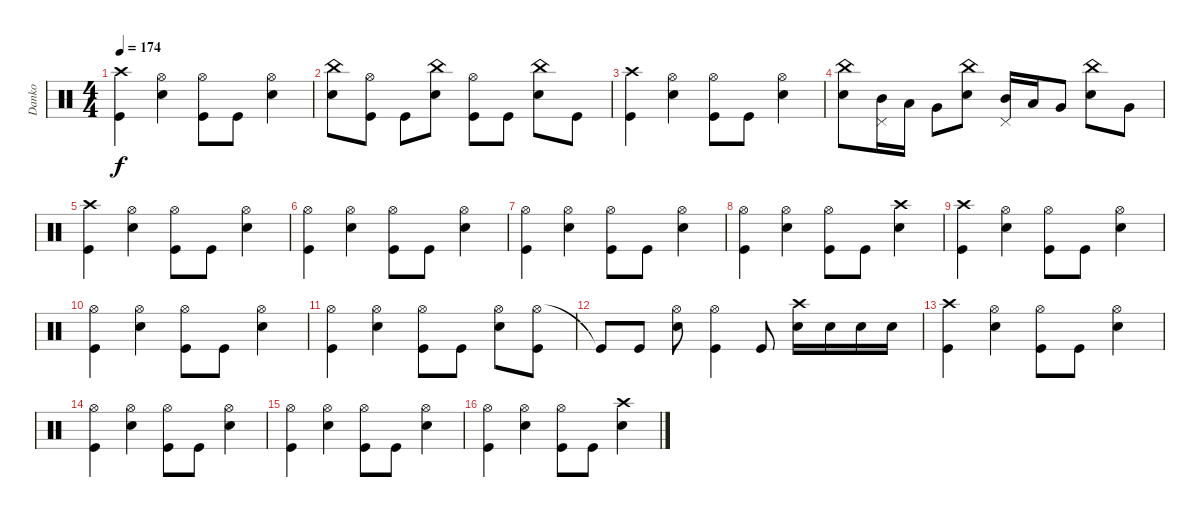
\track ("Danko" "Danko") {instrument percussion}
\staff {score}
\articulation defaults
\ts (4 4)
\tempo 174
\clef neutral
\ks c
("Crash high (hit)" "Kick (hit)").4{dy f} ("Hi-Hat (open)" "Snare (hit) 2").4 ("Hi-Hat (open)" "Kick (hit)").8 "Kick (hit)".8 ("Hi-Hat (open)" "Snare (hit) 2").4 |
("Snare (hit) 2" "China (hit)").8 ("Kick (hit)" "Hi-Hat (open)").8 "Kick (hit)".8 ("Snare (hit) 2" "China (hit)").8 ("Kick (hit)" "Hi-Hat (open)").8 "Kick (hit)".8 ("Snare (hit) 2" "China (hit)").8 "Kick (hit)".8 |
("Crash high (hit)" "Kick (hit)").4 ("Hi-Hat (open)" "Snare (hit) 2").4 ("Hi-Hat (open)" "Kick (hit)").8 "Kick (hit)".8 ("Hi-Hat (open)" "Snare (hit) 2").4 |
("Snare (hit) 2" "China (hit)").8 ("Pedal Hi-Hat (hit)" "Mid Tom (hit)").16 "Low Tom (hit)".16 "Very Low Tom (hit)".8 ("Snare (hit) 2" "China (hit)").8 ("Pedal Hi-Hat (hit)" "Mid Tom (hit)").16 "Low Tom (hit)".16 "Very Low Tom (hit)".8 ("Snare (hit) 2" "China (hit)").8 "Very Low Tom (hit)".8 |
("Crash high (hit)" "Kick (hit)").4 ("Hi-Hat (open)" "Snare (hit) 2").4 ("Hi-Hat (open)" "Kick (hit)").8 "Kick (hit)".8 ("Hi-Hat (open)" "Snare (hit) 2").4 |
("Hi-Hat (open)" "Kick (hit)").4 ("Hi-Hat (open)" "Snare (hit) 2").4 ("Hi-Hat (open)" "Kick (hit)").8 "Kick (hit)".8 ("Hi-Hat (open)" "Snare (hit) 2").4 |
("Hi-Hat (open)" "Kick (hit)").4 ("Hi-Hat (open)" "Snare (hit) 2").4 ("Hi-Hat (open)" "Kick (hit)").8 "Kick (hit)".8 ("Hi-Hat (open)" "Snare (hit) 2").4 |
("Hi-Hat (open)" "Kick (hit)").4 ("Hi-Hat (open)" "Snare (hit) 2").4 ("Hi-Hat (open)" "Kick (hit)").8 "Kick (hit)".8 ("Crash high (hit)" "Snare (hit) 2").4 |
("Crash high (hit)" "Kick (hit)").4 ("Hi-Hat (open)" "Snare (hit) 2").4 ("Hi-Hat (open)" "Kick (hit)").8 "Kick (hit)".8 ("Hi-Hat (open)" "Snare (hit) 2").4 |
("Hi-Hat (open)" "Kick (hit)").4 ("Hi-Hat (open)" "Snare (hit) 2").4 ("Hi-Hat (open)" "Kick (hit)").8 "Kick (hit)".8 ("Hi-Hat (open)" "Snare (hit) 2").4 |
("Hi-Hat (open)" "Kick (hit)").4 ("Hi-Hat (open)" "Snare (hit) 2").4 ("Hi-Hat (open)" "Kick (hit)").8 "Kick (hit)".8 ("Hi-Hat (open)" "Snare (hit) 2").8 ("Hi-Hat (open)" "Kick (hit)").8 |
"Kick (hit)"{t}.8 "Kick (hit)".8 ("Hi-Hat (open)" "Snare (hit) 2").8 ("Hi-Hat (open)" "Kick (hit)").4 "Kick (hit)".8 ("Crash high (hit)" "Snare (hit) 2").16 "Snare (hit) 2".16 "Snare (hit) 2".16 "Snare (hit) 2".16 |
("Crash high (hit)" "Kick (hit)").4 ("Hi-Hat (open)" "Snare (hit) 2").4 ("Hi-Hat (open)" "Kick (hit)").8 "Kick (hit)".8 ("Hi-Hat (open)" "Snare (hit) 2").4 |
("Hi-Hat (open)" "Kick (hit)").4 ("Hi-Hat (open)" "Snare (hit) 2").4 ("Hi-Hat (open)" "Kick (hit)").8 "Kick (hit)".8 ("Hi-Hat (open)" "Snare (hit) 2").4 |
("Hi-Hat (open)" "Kick (hit)").4 ("Hi-Hat (open)" "Snare (hit) 2").4 ("Hi-Hat (open)" "Kick (hit)").8 "Kick (hit)".8 ("Hi-Hat (open)" "Snare (hit) 2").4 |
("Hi-Hat (open)" "Kick (hit)").4 ("Hi-Hat (open)" "Snare (hit) 2").4 ("Hi-Hat (open)" "Kick (hit)").8 "Kick (hit)".8 ("Crash high (hit)" "Snare (hit) 2").4
